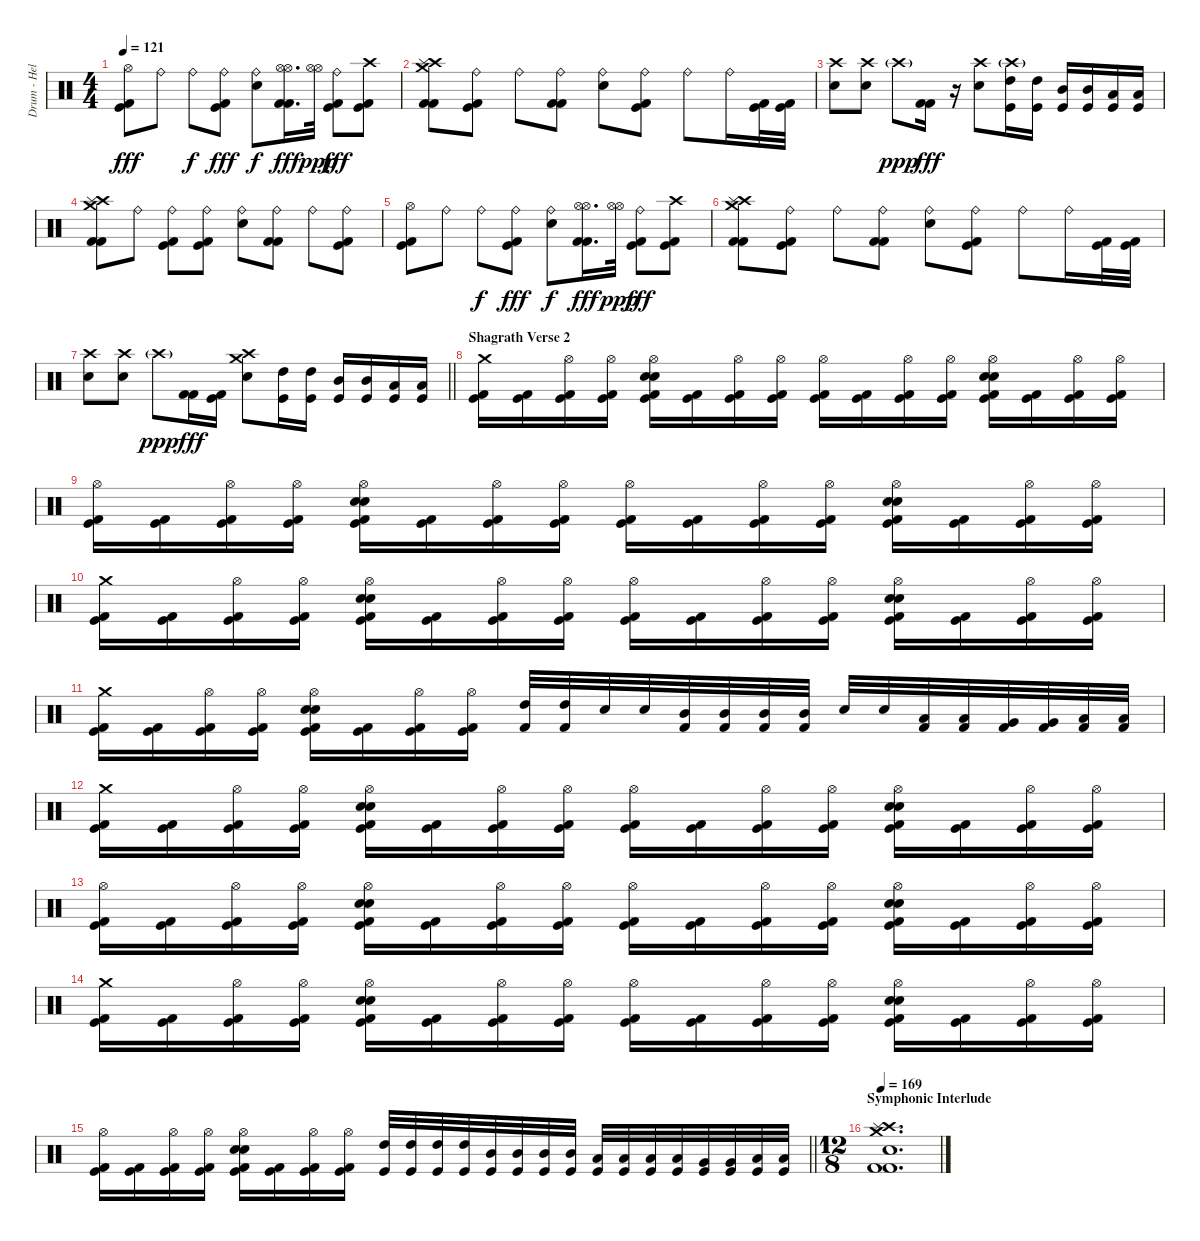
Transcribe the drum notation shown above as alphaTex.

\track ("Drum - Hellhammer" "Drum - Hel") {instrument percussion}
\staff {score}
\articulation defaults
\ts (4 4)
\tempo 121
\clef neutral
\ks c
("Hi-Hat (open)" "Kick (hit)" "Kick (hit) 2").8{dy fff} "Ride (bell)".8 "Ride (bell)".8{dy f} ("Ride (bell)" "Kick (hit) 2" "Kick (hit)").8{dy fff} ("Ride (bell)" "Electric Snare (hit)").8{dy f} ("Hi-Hat (open)" "Hi-Hat (open)" "Kick (hit) 2" "Kick (hit) 2").16{d dy fff} ("Hi-Hat (open)" "Hi-Hat (open)").32{dy ppp} ("Ride (bell)" "Kick (hit) 2" "Kick (hit)").8{dy fff} ("Crash high (hit)" "Kick (hit) 2" "Kick (hit)").8 |
("Crash medium (hit)" "Crash high (hit)" "Splash (hit)" "Kick (hit) 2" "Kick (hit) 2").8 ("Ride (bell)" "Kick (hit) 2" "Kick (hit)").8 "Ride (bell)".8 ("Ride (bell)" "Kick (hit) 2" "Kick (hit) 2").8 ("Ride (bell)" "Electric Snare (hit)").8 ("Ride (bell)" "Kick (hit) 2" "Kick (hit)").8 "Ride (bell)".8 "Ride (bell)".16 ("Kick (hit)" "Kick (hit) 2").32 ("Kick (hit)" "Kick (hit) 2").32 |
("Crash high (hit)" "Electric Snare (hit)").8 ("Crash high (hit)" "Electric Snare (hit)").8 "Crash high (hit)"{g}.8{dy ppp} ("Kick (hit) 2" "Kick (hit) 2").16{dy fff} r.16 ("Crash high (hit)" "Electric Snare (hit)").8 ("Crash high (hit)"{g} "High Tom (hit)" "Kick (hit)").16 ("High Tom (hit)" "Kick (hit)").16 ("Mid Tom (hit)" "Kick (hit)").16 ("Mid Tom (hit)" "Kick (hit)").16 ("Low Tom (hit)" "Kick (hit)").16 ("Low Tom (hit)" "Kick (hit)").16 |
("Crash medium (hit)" "Crash high (hit)" "Splash (hit)" "Kick (hit) 2" "Kick (hit) 2").8 "Ride (bell)".8 ("Ride (bell)" "Kick (hit) 2" "Kick (hit)").8 ("Ride (bell)" "Kick (hit) 2" "Kick (hit)").8 ("Ride (bell)" "Electric Snare (hit)").8 ("Ride (bell)" "Kick (hit) 2" "Kick (hit) 2").8 "Ride (bell)".8 ("Ride (bell)" "Kick (hit) 2" "Kick (hit)").8 |
("Hi-Hat (open)" "Kick (hit)" "Kick (hit) 2").8 "Ride (bell)".8 "Ride (bell)".8{dy f} ("Ride (bell)" "Kick (hit) 2" "Kick (hit)").8{dy fff} ("Ride (bell)" "Electric Snare (hit)").8{dy f} ("Hi-Hat (open)" "Hi-Hat (open)" "Kick (hit) 2" "Kick (hit) 2").16{d dy fff} ("Hi-Hat (open)" "Hi-Hat (open)").32{dy ppp} ("Ride (bell)" "Kick (hit) 2" "Kick (hit)").8{dy fff} ("Crash high (hit)" "Kick (hit) 2" "Kick (hit)").8 |
("Crash medium (hit)" "Crash high (hit)" "Splash (hit)" "Kick (hit) 2" "Kick (hit) 2").8 ("Ride (bell)" "Kick (hit) 2" "Kick (hit)").8 "Ride (bell)".8 ("Ride (bell)" "Kick (hit) 2" "Kick (hit) 2").8 ("Ride (bell)" "Electric Snare (hit)").8 ("Ride (bell)" "Kick (hit) 2" "Kick (hit)").8 "Ride (bell)".8 "Ride (bell)".16 ("Kick (hit)" "Kick (hit) 2").32 ("Kick (hit)" "Kick (hit) 2").32 |
\barLineRight lightlight
("Crash high (hit)" "Electric Snare (hit)").8 ("Crash high (hit)" "Electric Snare (hit)").8 "Crash high (hit)"{g}.8{dy ppp} ("Kick (hit) 2" "Kick (hit) 2").16{dy fff} ("Kick (hit) 2" "Kick (hit)").16 ("Crash high (hit)" "Crash medium (hit)" "Electric Snare (hit)").8 ("High Tom (hit)" "Kick (hit)").16 ("High Tom (hit)" "Kick (hit)").16 ("Mid Tom (hit)" "Kick (hit)").16 ("Mid Tom (hit)" "Kick (hit)").16 ("Low Tom (hit)" "Kick (hit)").16 ("Low Tom (hit)" "Kick (hit)").16 |
\section ("" "Shagrath Verse 2")
("Crash medium (hit)" "Kick (hit) 2" "Kick (hit)").16 ("Kick (hit) 2" "Kick (hit)").16 ("Hi-Hat (open)" "Kick (hit) 2" "Kick (hit)").16 ("Hi-Hat (open)" "Kick (hit) 2" "Kick (hit)").16 ("Hi-Hat (open)" "Electric Snare (hit)" "Electric Snare (hit)" "Kick (hit) 2" "Kick (hit)").16 ("Kick (hit) 2" "Kick (hit)").16 ("Hi-Hat (open)" "Kick (hit) 2" "Kick (hit)").16 ("Hi-Hat (open)" "Kick (hit) 2" "Kick (hit)").16 ("Hi-Hat (open)" "Kick (hit) 2" "Kick (hit)").16 ("Kick (hit) 2" "Kick (hit)").16 ("Hi-Hat (open)" "Kick (hit) 2" "Kick (hit)").16 ("Hi-Hat (open)" "Kick (hit) 2" "Kick (hit)").16 ("Hi-Hat (open)" "Electric Snare (hit)" "Electric Snare (hit)" "Kick (hit) 2" "Kick (hit)").16 ("Kick (hit) 2" "Kick (hit)").16 ("Hi-Hat (open)" "Kick (hit) 2" "Kick (hit)").16 ("Hi-Hat (open)" "Kick (hit) 2" "Kick (hit)").16 |
("Hi-Hat (open)" "Kick (hit) 2" "Kick (hit)").16 ("Kick (hit) 2" "Kick (hit)").16 ("Hi-Hat (open)" "Kick (hit) 2" "Kick (hit)").16 ("Hi-Hat (open)" "Kick (hit) 2" "Kick (hit)").16 ("Hi-Hat (open)" "Electric Snare (hit)" "Electric Snare (hit)" "Kick (hit) 2" "Kick (hit)").16 ("Kick (hit) 2" "Kick (hit)").16 ("Hi-Hat (open)" "Kick (hit) 2" "Kick (hit)").16 ("Hi-Hat (open)" "Kick (hit) 2" "Kick (hit)").16 ("Hi-Hat (open)" "Kick (hit) 2" "Kick (hit)").16 ("Kick (hit) 2" "Kick (hit)").16 ("Hi-Hat (open)" "Kick (hit) 2" "Kick (hit)").16 ("Hi-Hat (open)" "Kick (hit) 2" "Kick (hit)").16 ("Hi-Hat (open)" "Electric Snare (hit)" "Electric Snare (hit)" "Kick (hit) 2" "Kick (hit)").16 ("Kick (hit) 2" "Kick (hit)").16 ("Hi-Hat (open)" "Kick (hit) 2" "Kick (hit)").16 ("Hi-Hat (open)" "Kick (hit) 2" "Kick (hit)").16 |
("Crash medium (hit)" "Kick (hit) 2" "Kick (hit)").16 ("Kick (hit) 2" "Kick (hit)").16 ("Hi-Hat (open)" "Kick (hit) 2" "Kick (hit)").16 ("Hi-Hat (open)" "Kick (hit) 2" "Kick (hit)").16 ("Hi-Hat (open)" "Electric Snare (hit)" "Electric Snare (hit)" "Kick (hit) 2" "Kick (hit)").16 ("Kick (hit) 2" "Kick (hit)").16 ("Hi-Hat (open)" "Kick (hit) 2" "Kick (hit)").16 ("Hi-Hat (open)" "Kick (hit) 2" "Kick (hit)").16 ("Hi-Hat (open)" "Kick (hit) 2" "Kick (hit)").16 ("Kick (hit) 2" "Kick (hit)").16 ("Hi-Hat (open)" "Kick (hit) 2" "Kick (hit)").16 ("Hi-Hat (open)" "Kick (hit) 2" "Kick (hit)").16 ("Hi-Hat (open)" "Electric Snare (hit)" "Electric Snare (hit)" "Kick (hit) 2" "Kick (hit)").16 ("Kick (hit) 2" "Kick (hit)").16 ("Hi-Hat (open)" "Kick (hit) 2" "Kick (hit)").16 ("Hi-Hat (open)" "Kick (hit) 2" "Kick (hit)").16 |
("Crash medium (hit)" "Kick (hit) 2" "Kick (hit)").16 ("Kick (hit) 2" "Kick (hit)").16 ("Hi-Hat (open)" "Kick (hit) 2" "Kick (hit)").16 ("Hi-Hat (open)" "Kick (hit) 2" "Kick (hit)").16 ("Hi-Hat (open)" "Electric Snare (hit)" "Electric Snare (hit)" "Kick (hit) 2" "Kick (hit)").16 ("Kick (hit) 2" "Kick (hit)").16 ("Hi-Hat (open)" "Kick (hit) 2" "Kick (hit)").16 ("Hi-Hat (open)" "Kick (hit) 2" "Kick (hit)").16 ("High Tom (hit)" "Kick (hit) 2").32 ("High Tom (hit)" "Kick (hit) 2").32 "Electric Snare (hit)".32 "Electric Snare (hit)".32 ("Mid Tom (hit)" "Kick (hit) 2").32 ("Mid Tom (hit)" "Kick (hit) 2").32 ("Mid Tom (hit)" "Kick (hit) 2").32 ("Mid Tom (hit)" "Kick (hit) 2").32 "Electric Snare (hit)".32 "Electric Snare (hit)".32 ("Low Tom (hit)" "Kick (hit) 2").32 ("Low Tom (hit)" "Kick (hit) 2").32 ("Very Low Tom (hit)" "Kick (hit) 2").32 ("Very Low Tom (hit)" "Kick (hit) 2").32 ("Low Floor Tom (hit)" "Kick (hit) 2").32 ("Low Floor Tom (hit)" "Kick (hit) 2").32 |
("Crash medium (hit)" "Kick (hit) 2" "Kick (hit)").16 ("Kick (hit) 2" "Kick (hit)").16 ("Hi-Hat (open)" "Kick (hit) 2" "Kick (hit)").16 ("Hi-Hat (open)" "Kick (hit) 2" "Kick (hit)").16 ("Hi-Hat (open)" "Electric Snare (hit)" "Electric Snare (hit)" "Kick (hit) 2" "Kick (hit)").16 ("Kick (hit) 2" "Kick (hit)").16 ("Hi-Hat (open)" "Kick (hit) 2" "Kick (hit)").16 ("Hi-Hat (open)" "Kick (hit) 2" "Kick (hit)").16 ("Hi-Hat (open)" "Kick (hit) 2" "Kick (hit)").16 ("Kick (hit) 2" "Kick (hit)").16 ("Hi-Hat (open)" "Kick (hit) 2" "Kick (hit)").16 ("Hi-Hat (open)" "Kick (hit) 2" "Kick (hit)").16 ("Hi-Hat (open)" "Electric Snare (hit)" "Electric Snare (hit)" "Kick (hit) 2" "Kick (hit)").16 ("Kick (hit) 2" "Kick (hit)").16 ("Hi-Hat (open)" "Kick (hit) 2" "Kick (hit)").16 ("Hi-Hat (open)" "Kick (hit) 2" "Kick (hit)").16 |
("Hi-Hat (open)" "Kick (hit) 2" "Kick (hit)").16 ("Kick (hit) 2" "Kick (hit)").16 ("Hi-Hat (open)" "Kick (hit) 2" "Kick (hit)").16 ("Hi-Hat (open)" "Kick (hit) 2" "Kick (hit)").16 ("Hi-Hat (open)" "Electric Snare (hit)" "Electric Snare (hit)" "Kick (hit) 2" "Kick (hit)").16 ("Kick (hit) 2" "Kick (hit)").16 ("Hi-Hat (open)" "Kick (hit) 2" "Kick (hit)").16 ("Hi-Hat (open)" "Kick (hit) 2" "Kick (hit)").16 ("Hi-Hat (open)" "Kick (hit) 2" "Kick (hit)").16 ("Kick (hit) 2" "Kick (hit)").16 ("Hi-Hat (open)" "Kick (hit) 2" "Kick (hit)").16 ("Hi-Hat (open)" "Kick (hit) 2" "Kick (hit)").16 ("Hi-Hat (open)" "Electric Snare (hit)" "Electric Snare (hit)" "Kick (hit) 2" "Kick (hit)").16 ("Kick (hit) 2" "Kick (hit)").16 ("Hi-Hat (open)" "Kick (hit) 2" "Kick (hit)").16 ("Hi-Hat (open)" "Kick (hit) 2" "Kick (hit)").16 |
("Crash medium (hit)" "Kick (hit) 2" "Kick (hit)").16 ("Kick (hit) 2" "Kick (hit)").16 ("Hi-Hat (open)" "Kick (hit) 2" "Kick (hit)").16 ("Hi-Hat (open)" "Kick (hit) 2" "Kick (hit)").16 ("Hi-Hat (open)" "Electric Snare (hit)" "Electric Snare (hit)" "Kick (hit) 2" "Kick (hit)").16 ("Kick (hit) 2" "Kick (hit)").16 ("Hi-Hat (open)" "Kick (hit) 2" "Kick (hit)").16 ("Hi-Hat (open)" "Kick (hit) 2" "Kick (hit)").16 ("Hi-Hat (open)" "Kick (hit) 2" "Kick (hit)").16 ("Kick (hit) 2" "Kick (hit)").16 ("Hi-Hat (open)" "Kick (hit) 2" "Kick (hit)").16 ("Hi-Hat (open)" "Kick (hit) 2" "Kick (hit)").16 ("Hi-Hat (open)" "Electric Snare (hit)" "Electric Snare (hit)" "Kick (hit) 2" "Kick (hit)").16 ("Kick (hit) 2" "Kick (hit)").16 ("Hi-Hat (open)" "Kick (hit) 2" "Kick (hit)").16 ("Hi-Hat (open)" "Kick (hit) 2" "Kick (hit)").16 |
\barLineRight lightlight
("Hi-Hat (open)" "Kick (hit) 2" "Kick (hit)").16 ("Kick (hit) 2" "Kick (hit)").16 ("Hi-Hat (open)" "Kick (hit) 2" "Kick (hit)").16 ("Hi-Hat (open)" "Kick (hit) 2" "Kick (hit)").16 ("Hi-Hat (open)" "Electric Snare (hit)" "Electric Snare (hit)" "Kick (hit) 2" "Kick (hit)").16 ("Kick (hit) 2" "Kick (hit)").16 ("Hi-Hat (open)" "Kick (hit) 2" "Kick (hit)").16 ("Hi-Hat (open)" "Kick (hit) 2" "Kick (hit)").16 ("High Tom (hit)" "Kick (hit)").32 ("High Tom (hit)" "Kick (hit)").32 ("High Tom (hit)" "Kick (hit)").32 ("High Tom (hit)" "Kick (hit)").32 ("Mid Tom (hit)" "Kick (hit)").32 ("Mid Tom (hit)" "Kick (hit)").32 ("Mid Tom (hit)" "Kick (hit)").32 ("Mid Tom (hit)" "Kick (hit)").32 ("Low Tom (hit)" "Kick (hit)").32 ("Low Tom (hit)" "Kick (hit)").32 ("Low Tom (hit)" "Kick (hit)").32 ("Low Tom (hit)" "Kick (hit)").32 ("Very Low Tom (hit)" "Kick (hit)").32 ("Very Low Tom (hit)" "Kick (hit)").32 ("Low Floor Tom (hit)" "Kick (hit)").32 ("Low Floor Tom (hit)" "Kick (hit)").32 |
\ts (12 8)
\section ("" "Symphonic Interlude")
\tempo 169
("Crash medium (hit)" "Crash high (hit)" "Splash (hit)" "Electric Snare (hit)" "Kick (hit) 2" "Kick (hit) 2").1{d}
